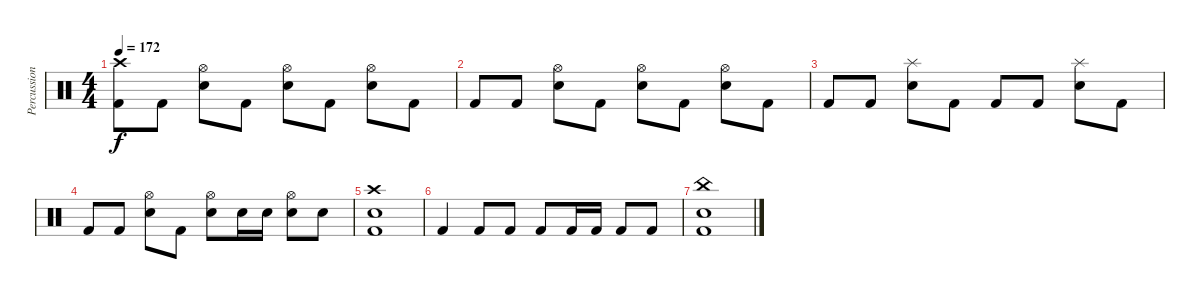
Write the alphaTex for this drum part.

\track ("Percussion" "Percussion") {instrument percussion}
\staff {score}
\articulation defaults
\ts (4 4)
\tempo 172
\clef neutral
\ks c
("Crash high (hit)" "Kick (hit) 2").8{dy f} "Kick (hit) 2".8 ("Hi-Hat (open)" "Electric Snare (hit)").8 "Kick (hit) 2".8 ("Hi-Hat (open)" "Electric Snare (hit)").8 "Kick (hit) 2".8 ("Hi-Hat (open)" "Electric Snare (hit)").8 "Kick (hit) 2".8 |
"Kick (hit) 2".8 "Kick (hit) 2".8 ("Hi-Hat (open)" "Electric Snare (hit)").8 "Kick (hit) 2".8 ("Hi-Hat (open)" "Electric Snare (hit)").8 "Kick (hit) 2".8 ("Hi-Hat (open)" "Electric Snare (hit)").8 "Kick (hit) 2".8 |
"Kick (hit) 2".8 "Kick (hit) 2".8 ("Splash (hit)" "Electric Snare (hit)").8 "Kick (hit) 2".8 "Kick (hit) 2".8 "Kick (hit) 2".8 ("Splash (hit)" "Electric Snare (hit)").8 "Kick (hit) 2".8 |
"Kick (hit) 2".8 "Kick (hit) 2".8 ("Hi-Hat (open)" "Electric Snare (hit)").8 "Kick (hit) 2".8 ("Hi-Hat (open)" "Electric Snare (hit)").8 "Electric Snare (hit)".16 "Electric Snare (hit)".16 ("Hi-Hat (open)" "Electric Snare (hit)").8 "Electric Snare (hit)".8 |
("Crash high (hit)" "Electric Snare (hit)" "Kick (hit) 2").1 |
"Kick (hit) 2".4 "Kick (hit) 2".8 "Kick (hit) 2".8 "Kick (hit) 2".8 "Kick (hit) 2".16 "Kick (hit) 2".16 "Kick (hit) 2".8 "Kick (hit) 2".8 |
("China (hit)" "Electric Snare (hit)" "Kick (hit) 2").1
